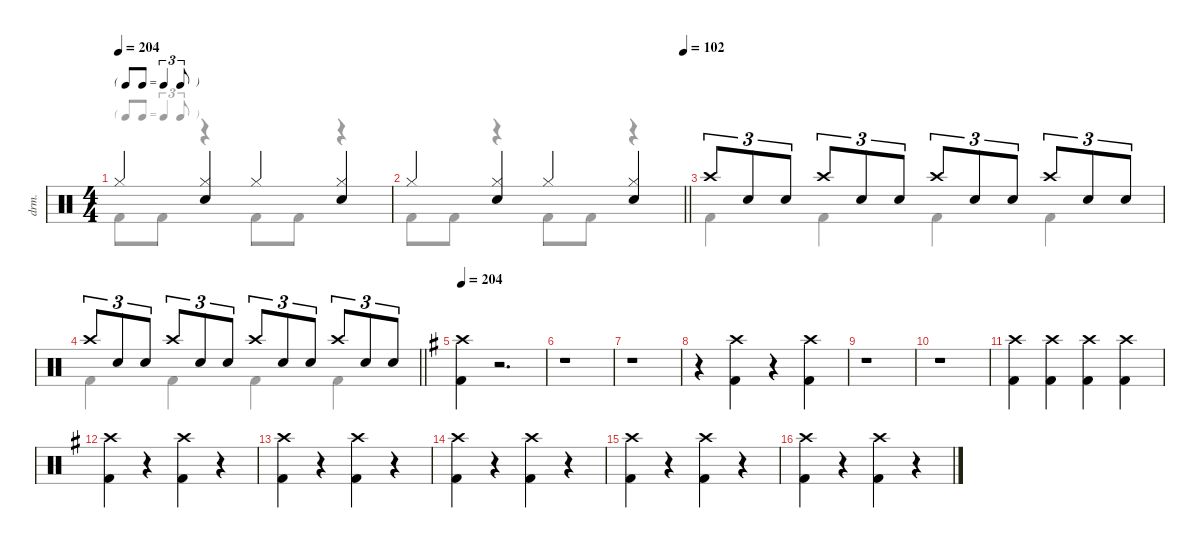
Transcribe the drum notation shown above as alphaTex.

\defaultSystemsLayout 4
\hideDynamics
\bracketExtendMode nobrackets
\otherSystemsTrackNameOrientation horizontal
\track ("Lars Ulrich" "drm.") {defaultSystemsLayout 8 instrument percussion}
\staff {score}
\articulation defaults
\voice
\ts (4 4)
\tf triplet8th
\tempo 204
\clef neutral
\ks aminor "Hi-Hat (closed)".4{dy f beam Up}
("Hi-Hat (closed)" "Snare (hit) 2").4{beam Up} "Hi-Hat (closed)".4{beam Up} ("Hi-Hat (closed)" "Snare (hit) 2").4{beam Up} |
\tempo (102 1)
\barLineRight lightlight "Hi-Hat (closed)".4{beam Up}
("Hi-Hat (closed)" "Snare (hit) 2").4{beam Up} "Hi-Hat (closed)".4{beam Up} ("Hi-Hat (closed)" "Snare (hit) 2").4{beam Up} |
"Crash high (hit)".8{tu (3 2) beam Up} "Snare (hit) 2".8{tu (3 2) beam Up} "Snare (hit) 2".8{tu (3 2) beam Up} "Crash high (hit)".8{tu (3 2) beam Up} "Snare (hit) 2".8{tu (3 2) beam Up} "Snare (hit) 2".8{tu (3 2) beam Up} "Crash high (hit)".8{tu (3 2) beam Up} "Snare (hit) 2".8{tu (3 2) beam Up} "Snare (hit) 2".8{tu (3 2) beam Up} "Crash high (hit)".8{tu (3 2) beam Up} "Snare (hit) 2".8{tu (3 2) beam Up} "Snare (hit) 2".8{tu (3 2) beam Up} |
\barLineRight lightlight "Crash high (hit)".8{tu (3 2) beam Up} "Snare (hit) 2".8{tu (3 2) beam Up} "Snare (hit) 2".8{tu (3 2) beam Up} "Crash high (hit)".8{tu (3 2) beam Up} "Snare (hit) 2".8{tu (3 2) beam Up} "Snare (hit) 2".8{tu (3 2) beam Up} "Crash high (hit)".8{tu (3 2) beam Up} "Snare (hit) 2".8{tu (3 2) beam Up} "Snare (hit) 2".8{tu (3 2) beam Up} "Crash high (hit)".8{tu (3 2) beam Up} "Snare (hit) 2".8{tu (3 2) beam Up} "Snare (hit) 2".8{tu (3 2) beam Up}
|
\tempo 204
\ks eminor
("Crash high (hit)"{acc forcenatural} "Kick (hit) 2"{acc forcenatural}).4{beam Down} r.2{d beam Down} |
r.1{beam Down} |
r.1{beam Down} |
r.4{beam Down} ("Crash high (hit)"{acc forcenatural} "Kick (hit) 2"{acc forcenatural}).4{beam Down} r.4{beam Down} ("Crash high (hit)"{acc forcenatural} "Kick (hit) 2"{acc forcenatural}).4{beam Down} |
r.1{beam Down} |
r.1{beam Down} |
("Crash high (hit)"{acc forcenatural} "Kick (hit) 2"{acc forcenatural}).4{beam Down} ("Crash high (hit)"{acc forcenatural} "Kick (hit) 2"{acc forcenatural}).4{beam Down} ("Crash high (hit)"{acc forcenatural} "Kick (hit) 2"{acc forcenatural}).4{beam Down} ("Crash high (hit)"{acc forcenatural} "Kick (hit) 2"{acc forcenatural}).4{beam Down} |
("Crash high (hit)"{acc forcenatural} "Kick (hit) 2"{acc forcenatural}).4{beam Down} r.4{beam Down} ("Crash high (hit)"{acc forcenatural} "Kick (hit) 2"{acc forcenatural}).4{beam Down} r.4{beam Down} |
("Crash high (hit)"{acc forcenatural} "Kick (hit) 2"{acc forcenatural}).4{beam Down} r.4{beam Down} ("Crash high (hit)"{acc forcenatural} "Kick (hit) 2"{acc forcenatural}).4{beam Down} r.4{beam Down} |
("Crash high (hit)"{acc forcenatural} "Kick (hit) 2"{acc forcenatural}).4{beam Down} r.4{beam Down} ("Crash high (hit)"{acc forcenatural} "Kick (hit) 2"{acc forcenatural}).4{beam Down} r.4{beam Down} |
("Crash high (hit)"{acc forcenatural} "Kick (hit) 2"{acc forcenatural}).4{beam Down} r.4{beam Down} ("Crash high (hit)"{acc forcenatural} "Kick (hit) 2"{acc forcenatural}).4{beam Down} r.4{beam Down} |
("Crash high (hit)"{acc forcenatural} "Kick (hit) 2"{acc forcenatural}).4{beam Down} r.4{beam Down} ("Crash high (hit)"{acc forcenatural} "Kick (hit) 2"{acc forcenatural}).4{beam Down} r.4{beam Down}
\voice
\clef neutral
\ottava regular
\simile none
\ks aminor "Kick (hit) 2".8{dy f beam Down} "Kick (hit) 2".8{beam Down}
r.4{beam Down} "Kick (hit) 2".8{beam Down} "Kick (hit) 2".8{beam Down} r.4{beam Down} |
\barLineRight lightlight "Kick (hit) 2".8{beam Down} "Kick (hit) 2".8{beam Down}
r.4{beam Down} "Kick (hit) 2".8{beam Down} "Kick (hit) 2".8{beam Down} r.4{beam Down} |
"Kick (hit) 2".4{beam Down} "Kick (hit) 2".4{beam Down} "Kick (hit) 2".4{beam Down} "Kick (hit) 2".4{beam Down} |
\barLineRight lightlight "Kick (hit) 2".4{beam Down} "Kick (hit) 2".4{beam Down} "Kick (hit) 2".4{beam Down} "Kick (hit) 2".4{beam Down}
|
\ks eminor
|
|
|
|
|
|
|
|
|
|
|
